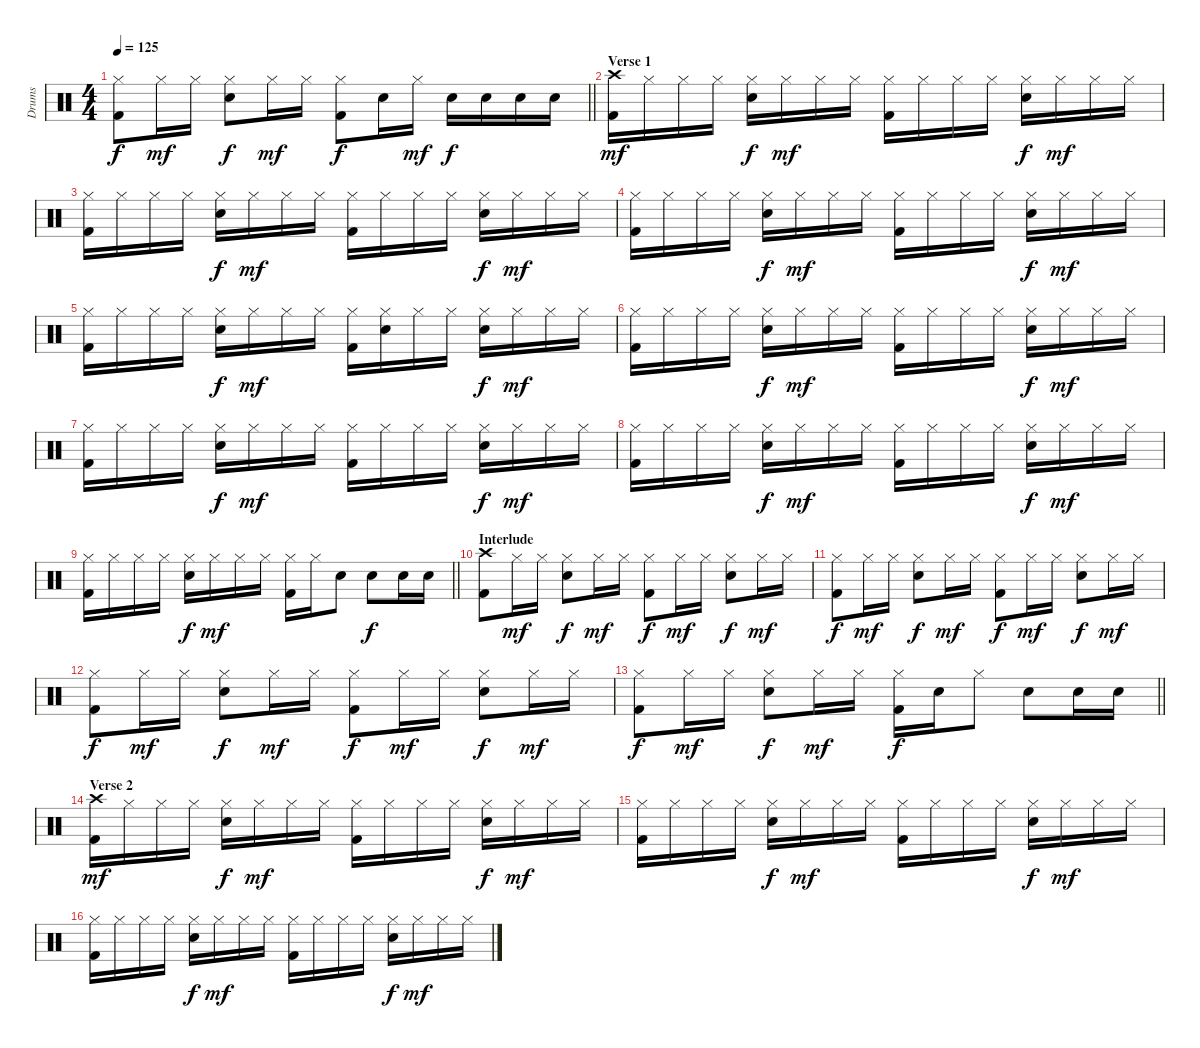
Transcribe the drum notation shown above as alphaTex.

\track ("Drums" "Drums") {instrument percussion}
\staff {score}
\articulation defaults
\ts (4 4)
\tempo 125
\clef neutral
\barLineRight lightlight
\ks c
("Hi-Hat (closed)" "Kick (hit) 2").8{dy f} "Hi-Hat (closed)".16{dy mf} "Hi-Hat (closed)".16 ("Hi-Hat (closed)" "Snare (hit) 2").8{dy f} "Hi-Hat (closed)".16{dy mf} "Hi-Hat (closed)".16 ("Hi-Hat (closed)" "Kick (hit) 2").8{dy f} "Snare (hit) 2".16 "Hi-Hat (closed)".16{dy mf} "Snare (hit) 2".16{dy f} "Snare (hit) 2".16 "Snare (hit) 2".16 "Snare (hit) 2".16 |
\section ("" "Verse 1")
("Crash high (hit)" "Kick (hit) 2").16{dy mf} "Hi-Hat (closed)".16 "Hi-Hat (closed)".16 "Hi-Hat (closed)".16 ("Hi-Hat (closed)" "Snare (hit) 2").16{dy f} "Hi-Hat (closed)".16{dy mf} "Hi-Hat (closed)".16 "Hi-Hat (closed)".16 ("Hi-Hat (closed)" "Kick (hit) 2").16 "Hi-Hat (closed)".16 "Hi-Hat (closed)".16 "Hi-Hat (closed)".16 ("Hi-Hat (closed)" "Snare (hit) 2").16{dy f} "Hi-Hat (closed)".16{dy mf} "Hi-Hat (closed)".16 "Hi-Hat (closed)".16 |
("Hi-Hat (closed)" "Kick (hit) 2").16 "Hi-Hat (closed)".16 "Hi-Hat (closed)".16 "Hi-Hat (closed)".16 ("Hi-Hat (closed)" "Snare (hit) 2").16{dy f} "Hi-Hat (closed)".16{dy mf} "Hi-Hat (closed)".16 "Hi-Hat (closed)".16 ("Hi-Hat (closed)" "Kick (hit) 2").16 "Hi-Hat (closed)".16 "Hi-Hat (closed)".16 "Hi-Hat (closed)".16 ("Hi-Hat (closed)" "Snare (hit) 2").16{dy f} "Hi-Hat (closed)".16{dy mf} "Hi-Hat (closed)".16 "Hi-Hat (closed)".16 |
("Hi-Hat (closed)" "Kick (hit) 2").16 "Hi-Hat (closed)".16 "Hi-Hat (closed)".16 "Hi-Hat (closed)".16 ("Hi-Hat (closed)" "Snare (hit) 2").16{dy f} "Hi-Hat (closed)".16{dy mf} "Hi-Hat (closed)".16 "Hi-Hat (closed)".16 ("Hi-Hat (closed)" "Kick (hit) 2").16 "Hi-Hat (closed)".16 "Hi-Hat (closed)".16 "Hi-Hat (closed)".16 ("Hi-Hat (closed)" "Snare (hit) 2").16{dy f} "Hi-Hat (closed)".16{dy mf} "Hi-Hat (closed)".16 "Hi-Hat (closed)".16 |
("Hi-Hat (closed)" "Kick (hit) 2").16 "Hi-Hat (closed)".16 "Hi-Hat (closed)".16 "Hi-Hat (closed)".16 ("Hi-Hat (closed)" "Snare (hit) 2").16{dy f} "Hi-Hat (closed)".16{dy mf} "Hi-Hat (closed)".16 "Hi-Hat (closed)".16 ("Hi-Hat (closed)" "Kick (hit) 2").16 ("Hi-Hat (closed)" "Snare (hit) 2").16 "Hi-Hat (closed)".16 "Hi-Hat (closed)".16 ("Hi-Hat (closed)" "Snare (hit) 2").16{dy f} "Hi-Hat (closed)".16{dy mf} "Hi-Hat (closed)".16 "Hi-Hat (closed)".16 |
("Hi-Hat (closed)" "Kick (hit) 2").16 "Hi-Hat (closed)".16 "Hi-Hat (closed)".16 "Hi-Hat (closed)".16 ("Hi-Hat (closed)" "Snare (hit) 2").16{dy f} "Hi-Hat (closed)".16{dy mf} "Hi-Hat (closed)".16 "Hi-Hat (closed)".16 ("Hi-Hat (closed)" "Kick (hit) 2").16 "Hi-Hat (closed)".16 "Hi-Hat (closed)".16 "Hi-Hat (closed)".16 ("Hi-Hat (closed)" "Snare (hit) 2").16{dy f} "Hi-Hat (closed)".16{dy mf} "Hi-Hat (closed)".16 "Hi-Hat (closed)".16 |
("Hi-Hat (closed)" "Kick (hit) 2").16 "Hi-Hat (closed)".16 "Hi-Hat (closed)".16 "Hi-Hat (closed)".16 ("Hi-Hat (closed)" "Snare (hit) 2").16{dy f} "Hi-Hat (closed)".16{dy mf} "Hi-Hat (closed)".16 "Hi-Hat (closed)".16 ("Hi-Hat (closed)" "Kick (hit) 2").16 "Hi-Hat (closed)".16 "Hi-Hat (closed)".16 "Hi-Hat (closed)".16 ("Hi-Hat (closed)" "Snare (hit) 2").16{dy f} "Hi-Hat (closed)".16{dy mf} "Hi-Hat (closed)".16 "Hi-Hat (closed)".16 |
("Hi-Hat (closed)" "Kick (hit) 2").16 "Hi-Hat (closed)".16 "Hi-Hat (closed)".16 "Hi-Hat (closed)".16 ("Hi-Hat (closed)" "Snare (hit) 2").16{dy f} "Hi-Hat (closed)".16{dy mf} "Hi-Hat (closed)".16 "Hi-Hat (closed)".16 ("Hi-Hat (closed)" "Kick (hit) 2").16 "Hi-Hat (closed)".16 "Hi-Hat (closed)".16 "Hi-Hat (closed)".16 ("Hi-Hat (closed)" "Snare (hit) 2").16{dy f} "Hi-Hat (closed)".16{dy mf} "Hi-Hat (closed)".16 "Hi-Hat (closed)".16 |
\barLineRight lightlight
("Hi-Hat (closed)" "Kick (hit) 2").16 "Hi-Hat (closed)".16 "Hi-Hat (closed)".16 "Hi-Hat (closed)".16 ("Hi-Hat (closed)" "Snare (hit) 2").16{dy f} "Hi-Hat (closed)".16{dy mf} "Hi-Hat (closed)".16 "Hi-Hat (closed)".16 ("Hi-Hat (closed)" "Kick (hit) 2").16 "Hi-Hat (closed)".16 "Snare (hit) 2".8 "Snare (hit) 2".8{dy f} "Snare (hit) 2".16 "Snare (hit) 2".16 |
\section ("" "Interlude")
("Crash high (hit)" "Kick (hit) 2").8 "Hi-Hat (closed)".16{dy mf} "Hi-Hat (closed)".16 ("Hi-Hat (closed)" "Snare (hit) 2").8{dy f} "Hi-Hat (closed)".16{dy mf} "Hi-Hat (closed)".16 ("Hi-Hat (closed)" "Kick (hit) 2").8{dy f} "Hi-Hat (closed)".16{dy mf} "Hi-Hat (closed)".16 ("Hi-Hat (closed)" "Snare (hit) 2").8{dy f} "Hi-Hat (closed)".16{dy mf} "Hi-Hat (closed)".16 |
("Hi-Hat (closed)" "Kick (hit) 2").8{dy f} "Hi-Hat (closed)".16{dy mf} "Hi-Hat (closed)".16 ("Hi-Hat (closed)" "Snare (hit) 2").8{dy f} "Hi-Hat (closed)".16{dy mf} "Hi-Hat (closed)".16 ("Hi-Hat (closed)" "Kick (hit) 2").8{dy f} "Hi-Hat (closed)".16{dy mf} "Hi-Hat (closed)".16 ("Hi-Hat (closed)" "Snare (hit) 2").8{dy f} "Hi-Hat (closed)".16{dy mf} "Hi-Hat (closed)".16 |
("Hi-Hat (closed)" "Kick (hit) 2").8{dy f} "Hi-Hat (closed)".16{dy mf} "Hi-Hat (closed)".16 ("Hi-Hat (closed)" "Snare (hit) 2").8{dy f} "Hi-Hat (closed)".16{dy mf} "Hi-Hat (closed)".16 ("Hi-Hat (closed)" "Kick (hit) 2").8{dy f} "Hi-Hat (closed)".16{dy mf} "Hi-Hat (closed)".16 ("Hi-Hat (closed)" "Snare (hit) 2").8{dy f} "Hi-Hat (closed)".16{dy mf} "Hi-Hat (closed)".16 |
\barLineRight lightlight
("Hi-Hat (closed)" "Kick (hit) 2").8{dy f} "Hi-Hat (closed)".16{dy mf} "Hi-Hat (closed)".16 ("Hi-Hat (closed)" "Snare (hit) 2").8{dy f} "Hi-Hat (closed)".16{dy mf} "Hi-Hat (closed)".16 ("Hi-Hat (closed)" "Kick (hit) 2").16{dy f} "Snare (hit) 2".16 "Hi-Hat (closed)".8 "Snare (hit) 2".8 "Snare (hit) 2".16 "Snare (hit) 2".16 |
\section ("" "Verse 2")
("Crash high (hit)" "Kick (hit) 2").16{dy mf} "Hi-Hat (closed)".16 "Hi-Hat (closed)".16 "Hi-Hat (closed)".16 ("Hi-Hat (closed)" "Snare (hit) 2").16{dy f} "Hi-Hat (closed)".16{dy mf} "Hi-Hat (closed)".16 "Hi-Hat (closed)".16 ("Hi-Hat (closed)" "Kick (hit) 2").16 "Hi-Hat (closed)".16 "Hi-Hat (closed)".16 "Hi-Hat (closed)".16 ("Hi-Hat (closed)" "Snare (hit) 2").16{dy f} "Hi-Hat (closed)".16{dy mf} "Hi-Hat (closed)".16 "Hi-Hat (closed)".16 |
("Hi-Hat (closed)" "Kick (hit) 2").16 "Hi-Hat (closed)".16 "Hi-Hat (closed)".16 "Hi-Hat (closed)".16 ("Hi-Hat (closed)" "Snare (hit) 2").16{dy f} "Hi-Hat (closed)".16{dy mf} "Hi-Hat (closed)".16 "Hi-Hat (closed)".16 ("Hi-Hat (closed)" "Kick (hit) 2").16 "Hi-Hat (closed)".16 "Hi-Hat (closed)".16 "Hi-Hat (closed)".16 ("Hi-Hat (closed)" "Snare (hit) 2").16{dy f} "Hi-Hat (closed)".16{dy mf} "Hi-Hat (closed)".16 "Hi-Hat (closed)".16 |
("Hi-Hat (closed)" "Kick (hit) 2").16 "Hi-Hat (closed)".16 "Hi-Hat (closed)".16 "Hi-Hat (closed)".16 ("Hi-Hat (closed)" "Snare (hit) 2").16{dy f} "Hi-Hat (closed)".16{dy mf} "Hi-Hat (closed)".16 "Hi-Hat (closed)".16 ("Hi-Hat (closed)" "Kick (hit) 2").16 "Hi-Hat (closed)".16 "Hi-Hat (closed)".16 "Hi-Hat (closed)".16 ("Hi-Hat (closed)" "Snare (hit) 2").16{dy f} "Hi-Hat (closed)".16{dy mf} "Hi-Hat (closed)".16 "Hi-Hat (closed)".16
